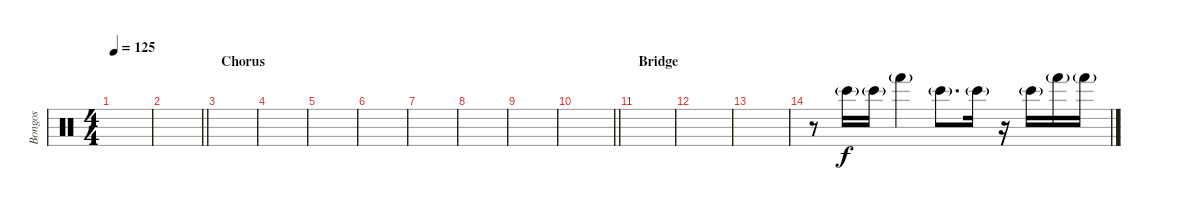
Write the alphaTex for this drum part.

\track ("Bongos" "Bongos") {instrument percussion}
\staff {score}
\articulation defaults
\ts (4 4)
\tempo 125
\clef neutral
\ks c
|
\barLineRight lightlight
|
\section ("" "Chorus")
|
|
|
|
|
|
|
\barLineRight lightlight
|
\section ("" "Bridge")
|
|
|
r.8 "Bongo High (hit)"{g}.16 "Bongo High (hit)"{g}.16 "Hand (hit)"{g}.4 "Bongo High (hit)"{g}.8{d} "Bongo High (hit)"{g}.16 r.16 "Bongo High (hit)"{g}.16 "Hand (hit)"{g}.16 "Hand (hit)"{g}.16
